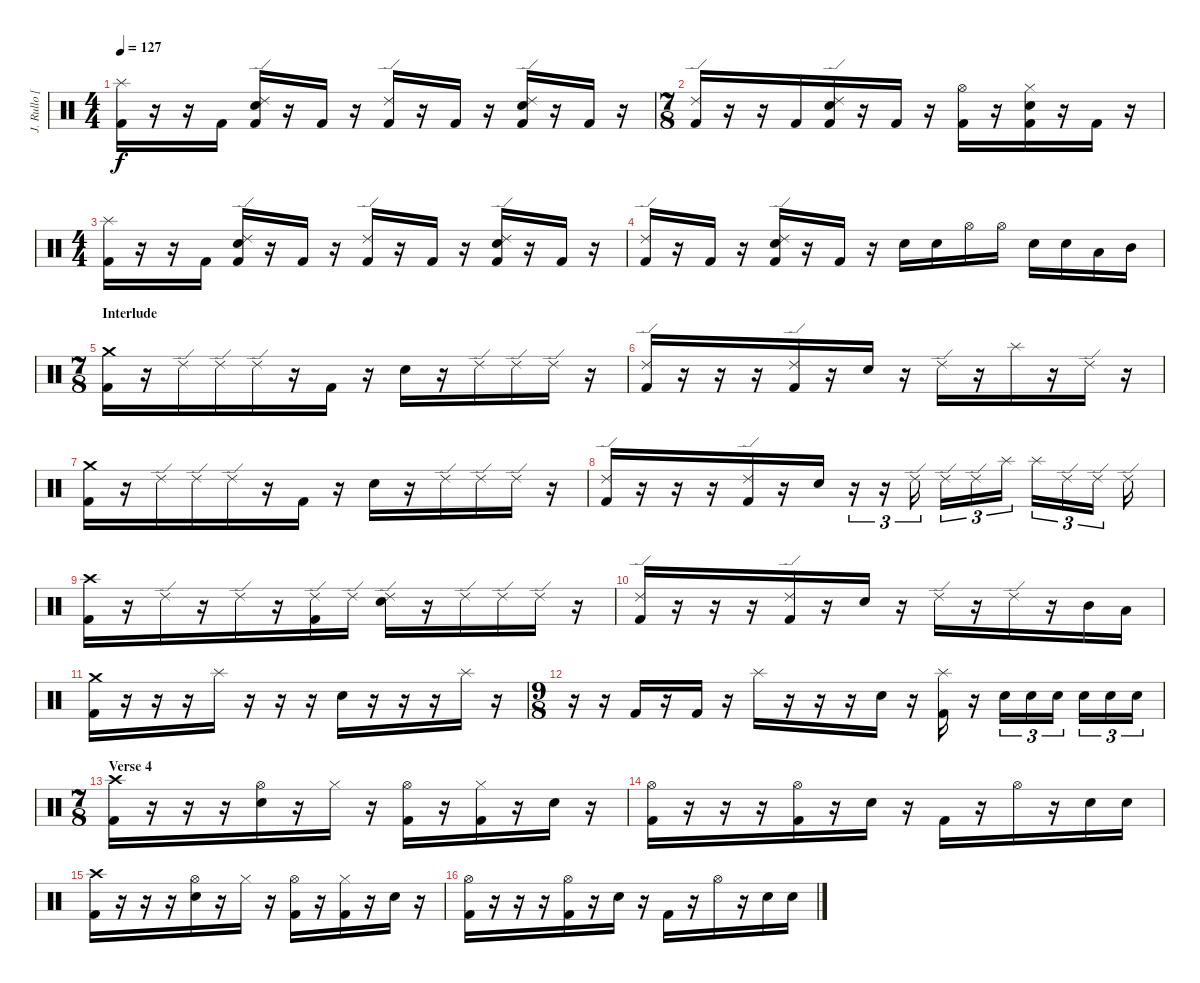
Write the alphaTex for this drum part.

\track ("J. Rullo [Drums]" "J. Rullo [") {instrument percussion}
\staff {score}
\articulation defaults
\ts (4 4)
\tempo 127
\clef neutral
\ks c
("Splash (hit)" "Kick (hit) 2").16{dy f} r.16 r.16 "Kick (hit) 2".16 ("Ride (edge) 2" "Electric Snare (hit)" "Kick (hit) 2").16 r.16 "Kick (hit) 2".16 r.16 ("Ride (edge) 2" "Kick (hit) 2").16 r.16 "Kick (hit) 2".16 r.16 ("Ride (edge) 2" "Electric Snare (hit)" "Kick (hit) 2").16 r.16 "Kick (hit) 2".16 r.16 |
\ts (7 8)
("Ride (edge) 2" "Kick (hit) 2").16 r.16 r.16 "Kick (hit) 2".16 ("Ride (edge) 2" "Electric Snare (hit)" "Kick (hit) 2").16 r.16 "Kick (hit) 2".16 r.16 ("Hi-Hat (open)" "Kick (hit) 2").16 r.16 ("Hi-Hat (closed)" "Electric Snare (hit)" "Kick (hit) 2").16 r.16 "Kick (hit) 2".16 r.16 |
\ts (4 4)
("Splash (hit)" "Kick (hit) 2").16 r.16 r.16 "Kick (hit) 2".16 ("Ride (edge) 2" "Electric Snare (hit)" "Kick (hit) 2").16 r.16 "Kick (hit) 2".16 r.16 ("Ride (edge) 2" "Kick (hit) 2").16 r.16 "Kick (hit) 2".16 r.16 ("Ride (edge) 2" "Electric Snare (hit)" "Kick (hit) 2").16 r.16 "Kick (hit) 2".16 r.16 |
("Ride (edge) 2" "Kick (hit) 2").16 r.16 "Kick (hit) 2".16 r.16 ("Ride (edge) 2" "Electric Snare (hit)" "Kick (hit) 2").16 r.16 "Kick (hit) 2".16 r.16 "Electric Snare (hit)".16 "Electric Snare (hit)".16 "Hi-Hat (open)".16 "Hi-Hat (open)".16 "Electric Snare (hit)".16 "Electric Snare (hit)".16 "Low Tom (hit)".16 "Mid Tom (hit)".16 |
\ts (7 8)
\section ("" "Interlude")
("Crash medium (hit)" "Kick (hit) 2").16 r.16 "Ride (edge) 2".16 "Ride (edge) 2".16 "Ride (edge) 2".16 r.16 "Kick (hit) 2".16 r.16 "Electric Snare (hit)".16 r.16 "Ride (edge) 2".16 "Ride (edge) 2".16 "Ride (edge) 2".16 r.16 |
("Ride (edge) 2" "Kick (hit) 2").16 r.16 r.16 r.16 ("Ride (edge) 2" "Kick (hit) 2").16 r.16 "Electric Snare (hit)".16 r.16 "Ride (edge) 2".16 r.16 "Splash (hit)".16 r.16 "Ride (edge) 2".16 r.16 |
("Crash medium (hit)" "Kick (hit) 2").16 r.16 "Ride (edge) 2".16 "Ride (edge) 2".16 "Ride (edge) 2".16 r.16 "Kick (hit) 2".16 r.16 "Electric Snare (hit)".16 r.16 "Ride (edge) 2".16 "Ride (edge) 2".16 "Ride (edge) 2".16 r.16 |
("Ride (edge) 2" "Kick (hit) 2").16 r.16 r.16 r.16 ("Ride (edge) 2" "Kick (hit) 2").16 r.16 "Electric Snare (hit)".16 r.16{tu (3 2)} r.16{tu (3 2)} "Ride (edge) 2".16{tu (3 2)} "Ride (edge) 2".16{tu (3 2)} "Ride (edge) 2".16{tu (3 2)} "Splash (hit)".16{tu (3 2)} "Splash (hit)".16{tu (3 2)} "Ride (edge) 2".16{tu (3 2)} "Ride (edge) 2".16{tu (3 2)} "Ride (edge) 2".16 |
("Crash high (hit)" "Kick (hit) 2").16 r.16 "Ride (edge) 2".16 r.16 "Ride (edge) 2".16 r.16 ("Ride (edge) 2" "Kick (hit) 2").16 "Ride (edge) 2".16 ("Ride (edge) 2" "Electric Snare (hit)").16 r.16 "Ride (edge) 2".16 "Ride (edge) 2".16 "Ride (edge) 2".16 r.16 |
("Ride (edge) 2" "Kick (hit) 2").16 r.16 r.16 r.16 ("Ride (edge) 2" "Kick (hit) 2").16 r.16 "Electric Snare (hit)".16 r.16 "Ride (edge) 2".16 r.16 "Ride (edge) 2".16 r.16 "Mid Tom (hit)".16 "Low Tom (hit)".16 |
("Crash medium (hit)" "Kick (hit) 2").16 r.16 r.16 r.16 "Splash (hit)".16 r.16 r.16 r.16 "Electric Snare (hit)".16 r.16 r.16 r.16 "Splash (hit)".16 r.16 |
\ts (9 8)
r.16 r.16 "Kick (hit) 2".16 r.16 "Kick (hit) 2".16 r.16 "Splash (hit)".16 r.16 r.16 r.16 "Electric Snare (hit)".16 r.16 ("Splash (hit)" "Kick (hit) 2").16 r.16 "Electric Snare (hit)".16{tu (3 2)} "Electric Snare (hit)".16{tu (3 2)} "Electric Snare (hit)".16{tu (3 2)} "Electric Snare (hit)".16{tu (3 2)} "Electric Snare (hit)".16{tu (3 2)} "Electric Snare (hit)".16{tu (3 2)} |
\ts (7 8)
\section ("" "Verse 4")
("Crash high (hit)" "Kick (hit) 2").16 r.16 r.16 r.16 ("Hi-Hat (open)" "Electric Snare (hit)").16 r.16 "Hi-Hat (closed)".16 r.16 ("Hi-Hat (open)" "Kick (hit) 2").16 r.16 ("Hi-Hat (closed)" "Kick (hit) 2").16 r.16 "Electric Snare (hit)".16 r.16 |
("Hi-Hat (open)" "Kick (hit) 2").16 r.16 r.16 r.16 ("Hi-Hat (open)" "Kick (hit) 2").16 r.16 "Electric Snare (hit)".16 r.16 "Kick (hit) 2".16 r.16 "Hi-Hat (open)".16 r.16 "Electric Snare (hit)".16 "Electric Snare (hit)".16 |
("Crash high (hit)" "Kick (hit) 2").16 r.16 r.16 r.16 ("Hi-Hat (open)" "Electric Snare (hit)").16 r.16 "Hi-Hat (closed)".16 r.16 ("Hi-Hat (open)" "Kick (hit) 2").16 r.16 ("Hi-Hat (closed)" "Kick (hit) 2").16 r.16 "Electric Snare (hit)".16 r.16 |
("Hi-Hat (open)" "Kick (hit) 2").16 r.16 r.16 r.16 ("Hi-Hat (open)" "Kick (hit) 2").16 r.16 "Electric Snare (hit)".16 r.16 "Kick (hit) 2".16 r.16 "Hi-Hat (open)".16 r.16 "Electric Snare (hit)".16 "Electric Snare (hit)".16
